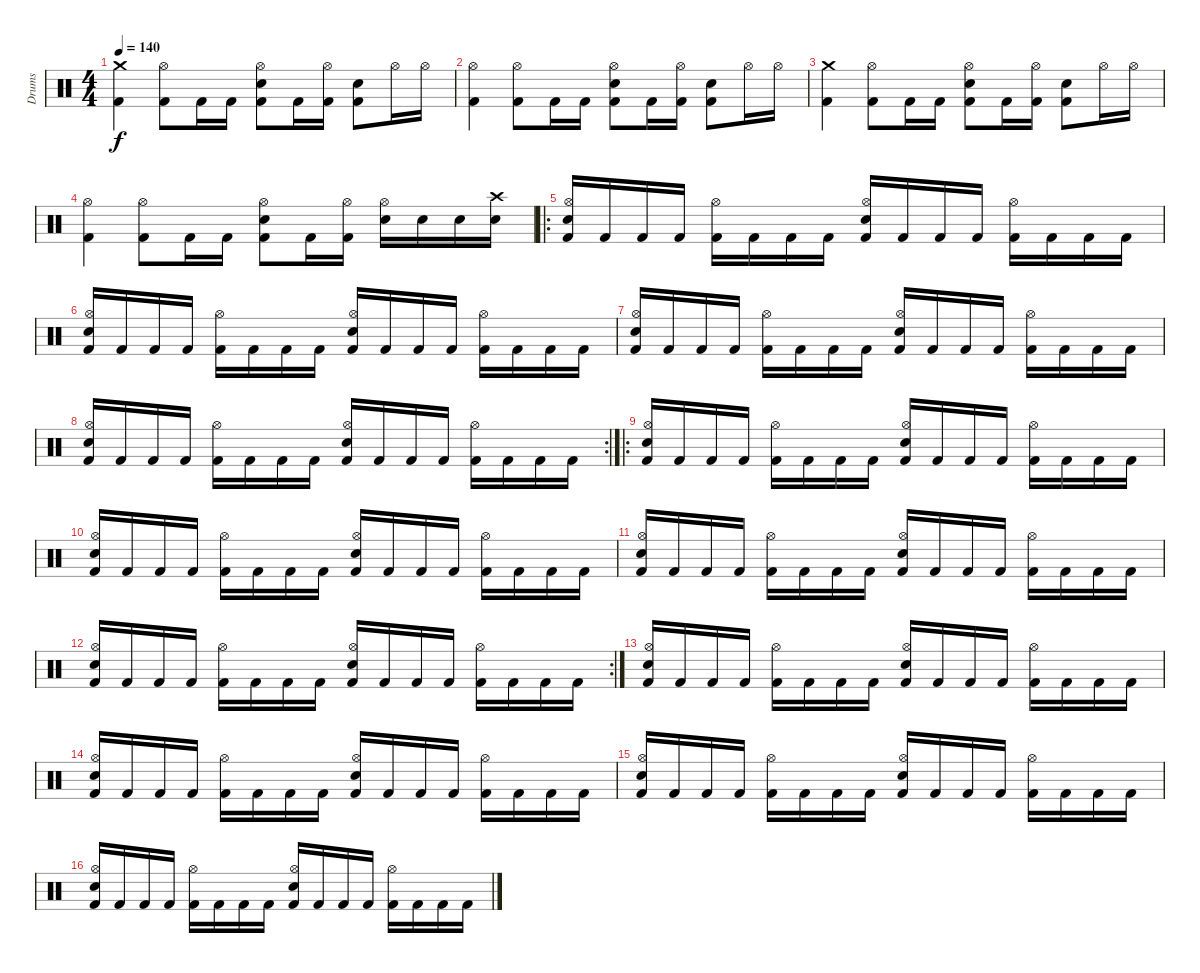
\track ("Drums" "Drums") {instrument percussion}
\staff {score}
\articulation defaults
\ts (4 4)
\tempo 140
\clef neutral
\ks c
("Kick (hit) 2" "Crash medium (hit)").4{dy f} ("Hi-Hat (open)" "Kick (hit) 2").8 "Kick (hit) 2".16 "Kick (hit) 2".16 ("Electric Snare (hit)" "Hi-Hat (open)" "Kick (hit) 2").8 "Kick (hit) 2".16 ("Hi-Hat (open)" "Kick (hit) 2").16 ("Electric Snare (hit)" "Kick (hit) 2").8 "Hi-Hat (open)".16 "Hi-Hat (open)".16 |
("Kick (hit) 2" "Hi-Hat (open)").4 ("Hi-Hat (open)" "Kick (hit) 2").8 "Kick (hit) 2".16 "Kick (hit) 2".16 ("Electric Snare (hit)" "Hi-Hat (open)" "Kick (hit) 2").8 "Kick (hit) 2".16 ("Hi-Hat (open)" "Kick (hit) 2").16 ("Electric Snare (hit)" "Kick (hit) 2").8 "Hi-Hat (open)".16 "Hi-Hat (open)".16 |
("Kick (hit) 2" "Crash medium (hit)").4 ("Hi-Hat (open)" "Kick (hit) 2").8 "Kick (hit) 2".16 "Kick (hit) 2".16 ("Electric Snare (hit)" "Hi-Hat (open)" "Kick (hit) 2").8 "Kick (hit) 2".16 ("Hi-Hat (open)" "Kick (hit) 2").16 ("Electric Snare (hit)" "Kick (hit) 2").8 "Hi-Hat (open)".16 "Hi-Hat (open)".16 |
("Kick (hit) 2" "Hi-Hat (open)").4 ("Hi-Hat (open)" "Kick (hit) 2").8 "Kick (hit) 2".16 "Kick (hit) 2".16 ("Electric Snare (hit)" "Hi-Hat (open)" "Kick (hit) 2").8 "Kick (hit) 2".16 ("Hi-Hat (open)" "Kick (hit) 2").16 ("Hi-Hat (open)" "Electric Snare (hit)").16 "Electric Snare (hit)".16 "Electric Snare (hit)".16 ("Crash high (hit)" "Electric Snare (hit)").16 |
\ro
("Kick (hit) 2" "Electric Snare (hit)" "Hi-Hat (open)").16 "Kick (hit) 2".16 "Kick (hit) 2".16 "Kick (hit) 2".16 ("Kick (hit) 2" "Hi-Hat (open)").16 "Kick (hit) 2".16 "Kick (hit) 2".16 "Kick (hit) 2".16 ("Kick (hit) 2" "Electric Snare (hit)" "Hi-Hat (open)").16 "Kick (hit) 2".16 "Kick (hit) 2".16 "Kick (hit) 2".16 ("Kick (hit) 2" "Hi-Hat (open)").16 "Kick (hit) 2".16 "Kick (hit) 2".16 "Kick (hit) 2".16 |
("Kick (hit) 2" "Electric Snare (hit)" "Hi-Hat (open)").16 "Kick (hit) 2".16 "Kick (hit) 2".16 "Kick (hit) 2".16 ("Kick (hit) 2" "Hi-Hat (open)").16 "Kick (hit) 2".16 "Kick (hit) 2".16 "Kick (hit) 2".16 ("Kick (hit) 2" "Electric Snare (hit)" "Hi-Hat (open)").16 "Kick (hit) 2".16 "Kick (hit) 2".16 "Kick (hit) 2".16 ("Kick (hit) 2" "Hi-Hat (open)").16 "Kick (hit) 2".16 "Kick (hit) 2".16 "Kick (hit) 2".16 |
("Kick (hit) 2" "Electric Snare (hit)" "Hi-Hat (open)").16 "Kick (hit) 2".16 "Kick (hit) 2".16 "Kick (hit) 2".16 ("Kick (hit) 2" "Hi-Hat (open)").16 "Kick (hit) 2".16 "Kick (hit) 2".16 "Kick (hit) 2".16 ("Kick (hit) 2" "Electric Snare (hit)" "Hi-Hat (open)").16 "Kick (hit) 2".16 "Kick (hit) 2".16 "Kick (hit) 2".16 ("Kick (hit) 2" "Hi-Hat (open)").16 "Kick (hit) 2".16 "Kick (hit) 2".16 "Kick (hit) 2".16 |
\rc 2
("Kick (hit) 2" "Electric Snare (hit)" "Hi-Hat (open)").16 "Kick (hit) 2".16 "Kick (hit) 2".16 "Kick (hit) 2".16 ("Kick (hit) 2" "Hi-Hat (open)").16 "Kick (hit) 2".16 "Kick (hit) 2".16 "Kick (hit) 2".16 ("Kick (hit) 2" "Electric Snare (hit)" "Hi-Hat (open)").16 "Kick (hit) 2".16 "Kick (hit) 2".16 "Kick (hit) 2".16 ("Kick (hit) 2" "Hi-Hat (open)").16 "Kick (hit) 2".16 "Kick (hit) 2".16 "Kick (hit) 2".16 |
\ro
("Kick (hit) 2" "Electric Snare (hit)" "Hi-Hat (open)").16 "Kick (hit) 2".16 "Kick (hit) 2".16 "Kick (hit) 2".16 ("Kick (hit) 2" "Hi-Hat (open)").16 "Kick (hit) 2".16 "Kick (hit) 2".16 "Kick (hit) 2".16 ("Kick (hit) 2" "Electric Snare (hit)" "Hi-Hat (open)").16 "Kick (hit) 2".16 "Kick (hit) 2".16 "Kick (hit) 2".16 ("Kick (hit) 2" "Hi-Hat (open)").16 "Kick (hit) 2".16 "Kick (hit) 2".16 "Kick (hit) 2".16 |
("Kick (hit) 2" "Electric Snare (hit)" "Hi-Hat (open)").16 "Kick (hit) 2".16 "Kick (hit) 2".16 "Kick (hit) 2".16 ("Kick (hit) 2" "Hi-Hat (open)").16 "Kick (hit) 2".16 "Kick (hit) 2".16 "Kick (hit) 2".16 ("Kick (hit) 2" "Electric Snare (hit)" "Hi-Hat (open)").16 "Kick (hit) 2".16 "Kick (hit) 2".16 "Kick (hit) 2".16 ("Kick (hit) 2" "Hi-Hat (open)").16 "Kick (hit) 2".16 "Kick (hit) 2".16 "Kick (hit) 2".16 |
("Kick (hit) 2" "Electric Snare (hit)" "Hi-Hat (open)").16 "Kick (hit) 2".16 "Kick (hit) 2".16 "Kick (hit) 2".16 ("Kick (hit) 2" "Hi-Hat (open)").16 "Kick (hit) 2".16 "Kick (hit) 2".16 "Kick (hit) 2".16 ("Kick (hit) 2" "Electric Snare (hit)" "Hi-Hat (open)").16 "Kick (hit) 2".16 "Kick (hit) 2".16 "Kick (hit) 2".16 ("Kick (hit) 2" "Hi-Hat (open)").16 "Kick (hit) 2".16 "Kick (hit) 2".16 "Kick (hit) 2".16 |
\rc 2
("Kick (hit) 2" "Electric Snare (hit)" "Hi-Hat (open)").16 "Kick (hit) 2".16 "Kick (hit) 2".16 "Kick (hit) 2".16 ("Kick (hit) 2" "Hi-Hat (open)").16 "Kick (hit) 2".16 "Kick (hit) 2".16 "Kick (hit) 2".16 ("Kick (hit) 2" "Electric Snare (hit)" "Hi-Hat (open)").16 "Kick (hit) 2".16 "Kick (hit) 2".16 "Kick (hit) 2".16 ("Kick (hit) 2" "Hi-Hat (open)").16 "Kick (hit) 2".16 "Kick (hit) 2".16 "Kick (hit) 2".16 |
("Kick (hit) 2" "Electric Snare (hit)" "Hi-Hat (open)").16 "Kick (hit) 2".16 "Kick (hit) 2".16 "Kick (hit) 2".16 ("Kick (hit) 2" "Hi-Hat (open)").16 "Kick (hit) 2".16 "Kick (hit) 2".16 "Kick (hit) 2".16 ("Kick (hit) 2" "Electric Snare (hit)" "Hi-Hat (open)").16 "Kick (hit) 2".16 "Kick (hit) 2".16 "Kick (hit) 2".16 ("Kick (hit) 2" "Hi-Hat (open)").16 "Kick (hit) 2".16 "Kick (hit) 2".16 "Kick (hit) 2".16 |
("Kick (hit) 2" "Electric Snare (hit)" "Hi-Hat (open)").16 "Kick (hit) 2".16 "Kick (hit) 2".16 "Kick (hit) 2".16 ("Kick (hit) 2" "Hi-Hat (open)").16 "Kick (hit) 2".16 "Kick (hit) 2".16 "Kick (hit) 2".16 ("Kick (hit) 2" "Electric Snare (hit)" "Hi-Hat (open)").16 "Kick (hit) 2".16 "Kick (hit) 2".16 "Kick (hit) 2".16 ("Kick (hit) 2" "Hi-Hat (open)").16 "Kick (hit) 2".16 "Kick (hit) 2".16 "Kick (hit) 2".16 |
("Kick (hit) 2" "Electric Snare (hit)" "Hi-Hat (open)").16 "Kick (hit) 2".16 "Kick (hit) 2".16 "Kick (hit) 2".16 ("Kick (hit) 2" "Hi-Hat (open)").16 "Kick (hit) 2".16 "Kick (hit) 2".16 "Kick (hit) 2".16 ("Kick (hit) 2" "Electric Snare (hit)" "Hi-Hat (open)").16 "Kick (hit) 2".16 "Kick (hit) 2".16 "Kick (hit) 2".16 ("Kick (hit) 2" "Hi-Hat (open)").16 "Kick (hit) 2".16 "Kick (hit) 2".16 "Kick (hit) 2".16 |
("Kick (hit) 2" "Electric Snare (hit)" "Hi-Hat (open)").16 "Kick (hit) 2".16 "Kick (hit) 2".16 "Kick (hit) 2".16 ("Kick (hit) 2" "Hi-Hat (open)").16 "Kick (hit) 2".16 "Kick (hit) 2".16 "Kick (hit) 2".16 ("Kick (hit) 2" "Electric Snare (hit)" "Hi-Hat (open)").16 "Kick (hit) 2".16 "Kick (hit) 2".16 "Kick (hit) 2".16 ("Kick (hit) 2" "Hi-Hat (open)").16 "Kick (hit) 2".16 "Kick (hit) 2".16 "Kick (hit) 2".16
